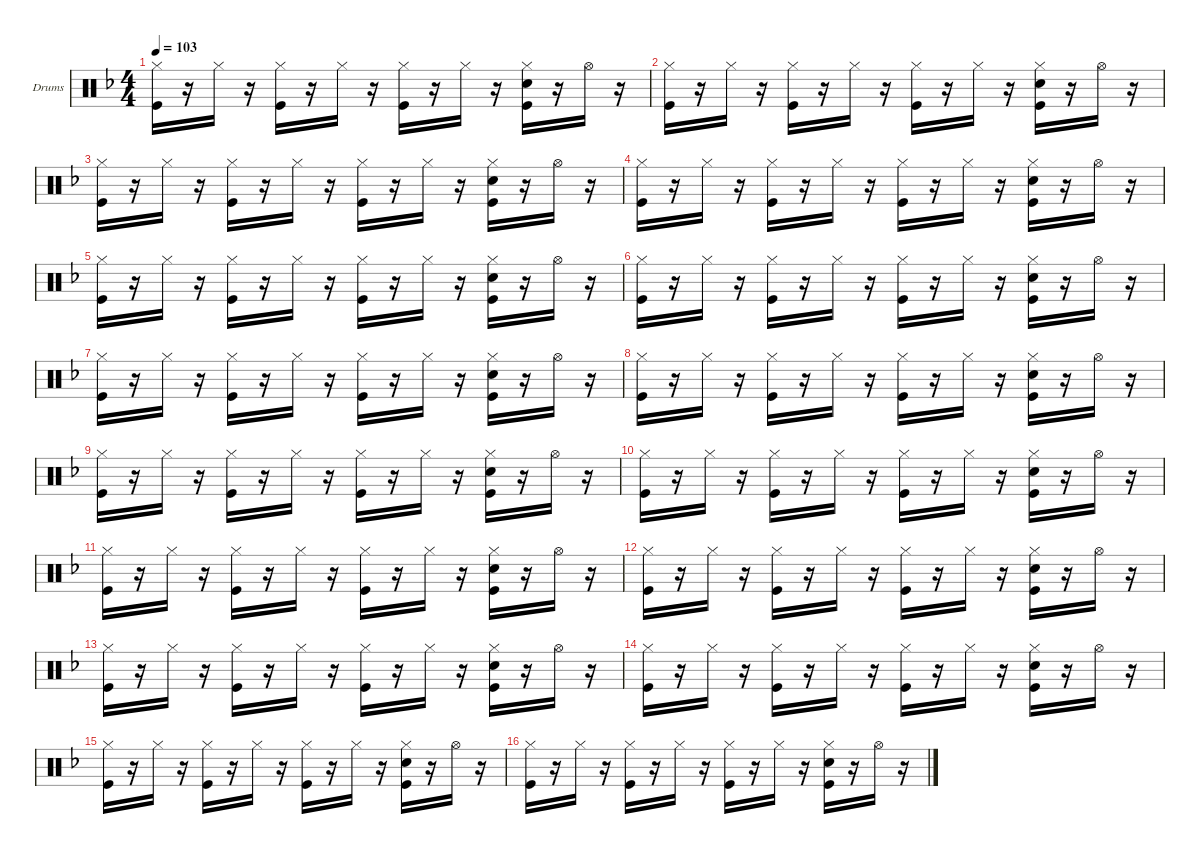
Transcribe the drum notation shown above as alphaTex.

\hideDynamics
\bracketExtendMode groupsimilarinstruments
\firstSystemTrackNameOrientation horizontal
\otherSystemsTrackNameOrientation horizontal
\track ("Drumkit" "Drums") {multiBarRest instrument percussion}
\staff {score}
\articulation defaults
\ts (4 4)
\tempo 103
\clef neutral
\ks f
("Kick (hit)" "Hi-Hat (closed)").16{dy f} r.16 "Hi-Hat (closed)".16 r.16 ("Kick (hit)" "Hi-Hat (closed)").16 r.16 "Hi-Hat (closed)".16 r.16 ("Kick (hit)" "Hi-Hat (closed)").16 r.16 "Hi-Hat (closed)".16 r.16 ("Hi-Hat (closed)" "Kick (hit)" "Snare (hit) 2").16 r.16 "Hi-Hat (open)".16 r.16 |
("Kick (hit)" "Hi-Hat (closed)").16 r.16 "Hi-Hat (closed)".16 r.16 ("Kick (hit)" "Hi-Hat (closed)").16 r.16 "Hi-Hat (closed)".16 r.16 ("Kick (hit)" "Hi-Hat (closed)").16 r.16 "Hi-Hat (closed)".16 r.16 ("Hi-Hat (closed)" "Kick (hit)" "Snare (hit) 2").16 r.16 "Hi-Hat (open)".16 r.16 |
("Kick (hit)" "Hi-Hat (closed)").16 r.16 "Hi-Hat (closed)".16 r.16 ("Kick (hit)" "Hi-Hat (closed)").16 r.16 "Hi-Hat (closed)".16 r.16 ("Kick (hit)" "Hi-Hat (closed)").16 r.16 "Hi-Hat (closed)".16 r.16 ("Hi-Hat (closed)" "Kick (hit)" "Snare (hit) 2").16 r.16 "Hi-Hat (open)".16 r.16 |
("Kick (hit)" "Hi-Hat (closed)").16 r.16 "Hi-Hat (closed)".16 r.16 ("Kick (hit)" "Hi-Hat (closed)").16 r.16 "Hi-Hat (closed)".16 r.16 ("Kick (hit)" "Hi-Hat (closed)").16 r.16 "Hi-Hat (closed)".16 r.16 ("Hi-Hat (closed)" "Kick (hit)" "Snare (hit) 2").16 r.16 "Hi-Hat (open)".16 r.16 |
("Kick (hit)" "Hi-Hat (closed)").16 r.16 "Hi-Hat (closed)".16 r.16 ("Kick (hit)" "Hi-Hat (closed)").16 r.16 "Hi-Hat (closed)".16 r.16 ("Kick (hit)" "Hi-Hat (closed)").16 r.16 "Hi-Hat (closed)".16 r.16 ("Hi-Hat (closed)" "Kick (hit)" "Snare (hit) 2").16 r.16 "Hi-Hat (open)".16 r.16 |
("Kick (hit)" "Hi-Hat (closed)").16 r.16 "Hi-Hat (closed)".16 r.16 ("Kick (hit)" "Hi-Hat (closed)").16 r.16 "Hi-Hat (closed)".16 r.16 ("Kick (hit)" "Hi-Hat (closed)").16 r.16 "Hi-Hat (closed)".16 r.16 ("Hi-Hat (closed)" "Kick (hit)" "Snare (hit) 2").16 r.16 "Hi-Hat (open)".16 r.16 |
("Kick (hit)" "Hi-Hat (closed)").16 r.16 "Hi-Hat (closed)".16 r.16 ("Kick (hit)" "Hi-Hat (closed)").16 r.16 "Hi-Hat (closed)".16 r.16 ("Kick (hit)" "Hi-Hat (closed)").16 r.16 "Hi-Hat (closed)".16 r.16 ("Hi-Hat (closed)" "Kick (hit)" "Snare (hit) 2").16 r.16 "Hi-Hat (open)".16 r.16 |
("Kick (hit)" "Hi-Hat (closed)").16 r.16 "Hi-Hat (closed)".16 r.16 ("Kick (hit)" "Hi-Hat (closed)").16 r.16 "Hi-Hat (closed)".16 r.16 ("Kick (hit)" "Hi-Hat (closed)").16 r.16 "Hi-Hat (closed)".16 r.16 ("Hi-Hat (closed)" "Kick (hit)" "Snare (hit) 2").16 r.16 "Hi-Hat (open)".16 r.16 |
("Kick (hit)" "Hi-Hat (closed)").16 r.16 "Hi-Hat (closed)".16 r.16 ("Kick (hit)" "Hi-Hat (closed)").16 r.16 "Hi-Hat (closed)".16 r.16 ("Kick (hit)" "Hi-Hat (closed)").16 r.16 "Hi-Hat (closed)".16 r.16 ("Hi-Hat (closed)" "Kick (hit)" "Snare (hit) 2").16 r.16 "Hi-Hat (open)".16 r.16 |
("Kick (hit)" "Hi-Hat (closed)").16 r.16 "Hi-Hat (closed)".16 r.16 ("Kick (hit)" "Hi-Hat (closed)").16 r.16 "Hi-Hat (closed)".16 r.16 ("Kick (hit)" "Hi-Hat (closed)").16 r.16 "Hi-Hat (closed)".16 r.16 ("Hi-Hat (closed)" "Kick (hit)" "Snare (hit) 2").16 r.16 "Hi-Hat (open)".16 r.16 |
("Kick (hit)" "Hi-Hat (closed)").16 r.16 "Hi-Hat (closed)".16 r.16 ("Kick (hit)" "Hi-Hat (closed)").16 r.16 "Hi-Hat (closed)".16 r.16 ("Kick (hit)" "Hi-Hat (closed)").16 r.16 "Hi-Hat (closed)".16 r.16 ("Hi-Hat (closed)" "Kick (hit)" "Snare (hit) 2").16 r.16 "Hi-Hat (open)".16 r.16 |
("Kick (hit)" "Hi-Hat (closed)").16 r.16 "Hi-Hat (closed)".16 r.16 ("Kick (hit)" "Hi-Hat (closed)").16 r.16 "Hi-Hat (closed)".16 r.16 ("Kick (hit)" "Hi-Hat (closed)").16 r.16 "Hi-Hat (closed)".16 r.16 ("Hi-Hat (closed)" "Kick (hit)" "Snare (hit) 2").16 r.16 "Hi-Hat (open)".16 r.16 |
("Kick (hit)" "Hi-Hat (closed)").16 r.16 "Hi-Hat (closed)".16 r.16 ("Kick (hit)" "Hi-Hat (closed)").16 r.16 "Hi-Hat (closed)".16 r.16 ("Kick (hit)" "Hi-Hat (closed)").16 r.16 "Hi-Hat (closed)".16 r.16 ("Hi-Hat (closed)" "Kick (hit)" "Snare (hit) 2").16 r.16 "Hi-Hat (open)".16 r.16 |
("Kick (hit)" "Hi-Hat (closed)").16 r.16 "Hi-Hat (closed)".16 r.16 ("Kick (hit)" "Hi-Hat (closed)").16 r.16 "Hi-Hat (closed)".16 r.16 ("Kick (hit)" "Hi-Hat (closed)").16 r.16 "Hi-Hat (closed)".16 r.16 ("Hi-Hat (closed)" "Kick (hit)" "Snare (hit) 2").16 r.16 "Hi-Hat (open)".16 r.16 |
("Kick (hit)" "Hi-Hat (closed)").16 r.16 "Hi-Hat (closed)".16 r.16 ("Kick (hit)" "Hi-Hat (closed)").16 r.16 "Hi-Hat (closed)".16 r.16 ("Kick (hit)" "Hi-Hat (closed)").16 r.16 "Hi-Hat (closed)".16 r.16 ("Hi-Hat (closed)" "Kick (hit)" "Snare (hit) 2").16 r.16 "Hi-Hat (open)".16 r.16 |
("Kick (hit)" "Hi-Hat (closed)").16 r.16 "Hi-Hat (closed)".16 r.16 ("Kick (hit)" "Hi-Hat (closed)").16 r.16 "Hi-Hat (closed)".16 r.16 ("Kick (hit)" "Hi-Hat (closed)").16 r.16 "Hi-Hat (closed)".16 r.16 ("Hi-Hat (closed)" "Kick (hit)" "Snare (hit) 2").16 r.16 "Hi-Hat (open)".16 r.16
